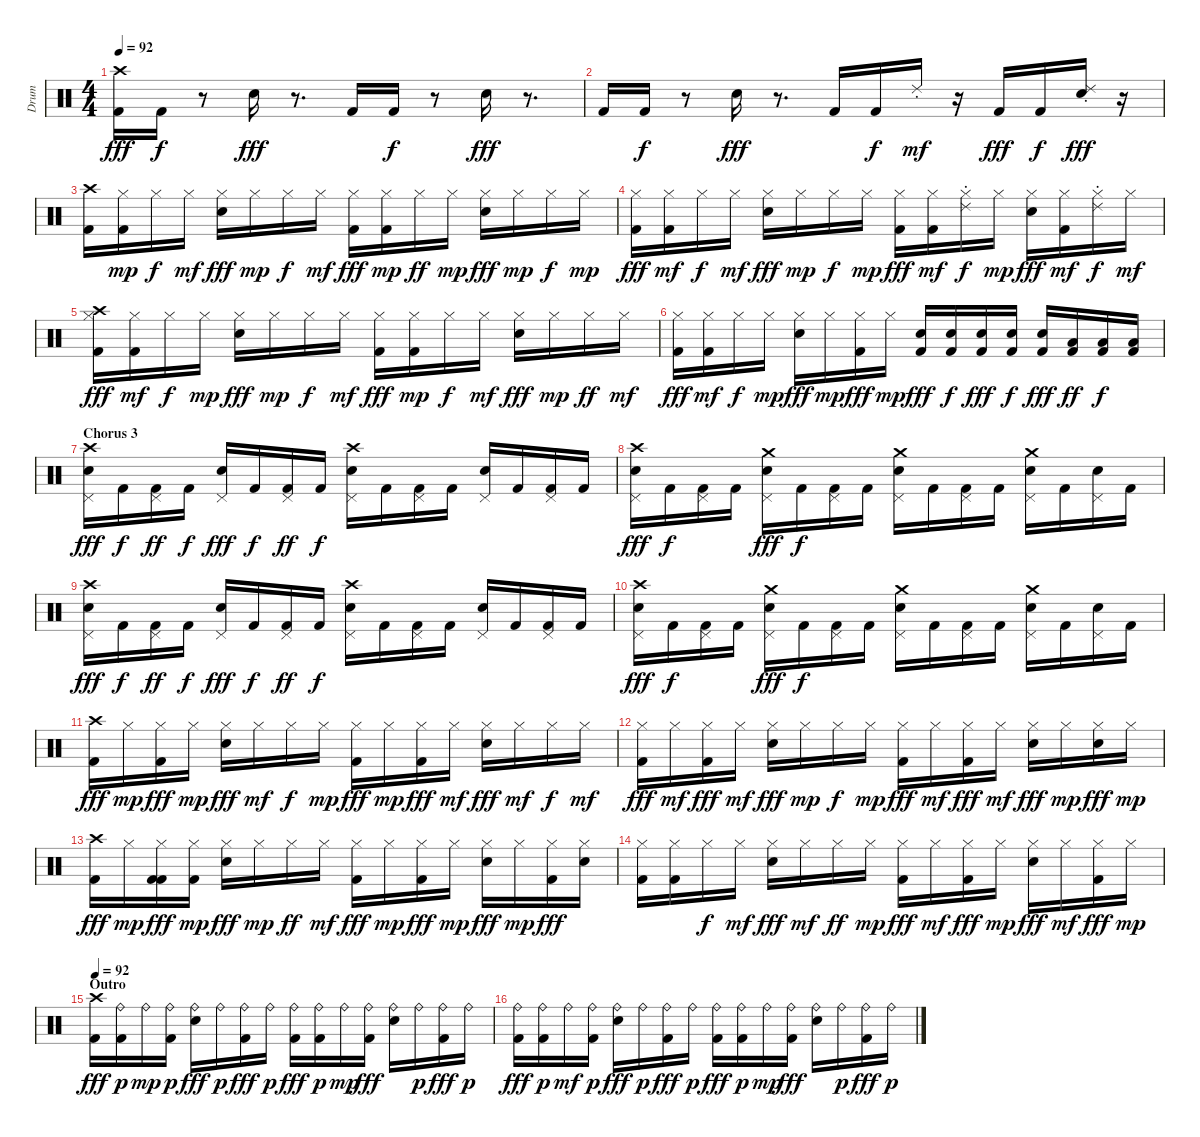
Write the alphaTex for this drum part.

\track ("Drum" "Drum") {instrument percussion}
\staff {score}
\articulation defaults
\ts (4 4)
\tempo 92
\clef neutral
\ks c
("Crash high (hit)" "Kick (hit) 2").16{dy fff} "Kick (hit) 2".16{dy f} r.8 "Electric Snare (hit)".16{dy fff} r.8{d} "Kick (hit) 2".16 "Kick (hit) 2".16{dy f} r.8 "Electric Snare (hit)".16{dy fff} r.8{d} |
"Kick (hit) 2".16 "Kick (hit) 2".16{dy f} r.8 "Electric Snare (hit)".16{dy fff} r.8{d} "Kick (hit) 2".16 "Kick (hit) 2".16{dy f} "Ride (choke) 2".16{dy mf} r.16 "Kick (hit) 2".16{dy fff} "Kick (hit) 2".16{dy f} ("Ride (choke) 2" "Electric Snare (hit)").16{dy fff} r.16 |
("Crash high (hit)" "Kick (hit) 2").16 ("Hi-Hat (closed)" "Kick (hit) 2").16{dy mp} "Hi-Hat (closed)".16{dy f} "Hi-Hat (closed)".16{dy mf} ("Hi-Hat (closed)" "Electric Snare (hit)").16{dy fff} "Hi-Hat (closed)".16{dy mp} "Hi-Hat (closed)".16{dy f} "Hi-Hat (closed)".16{dy mf} ("Hi-Hat (closed)" "Kick (hit) 2").16{dy fff} ("Hi-Hat (closed)" "Kick (hit) 2").16{dy mp} "Hi-Hat (closed)".16{dy ff} "Hi-Hat (closed)".16{dy mp} ("Hi-Hat (closed)" "Electric Snare (hit)").16{dy fff} "Hi-Hat (closed)".16{dy mp} "Hi-Hat (closed)".16{dy f} "Hi-Hat (closed)".16{dy mp} |
("Hi-Hat (closed)" "Kick (hit) 2").16{dy fff} ("Hi-Hat (closed)" "Kick (hit) 2").16{dy mf} "Hi-Hat (closed)".16{dy f} "Hi-Hat (closed)".16{dy mf} ("Hi-Hat (closed)" "Electric Snare (hit)").16{dy fff} "Hi-Hat (closed)".16{dy mp} "Hi-Hat (closed)".16{dy f} "Hi-Hat (closed)".16{dy mp} ("Hi-Hat (closed)" "Kick (hit) 2").16{dy fff} ("Hi-Hat (closed)" "Kick (hit) 2").16{dy mf} ("Ride (choke) 2" "Hi-Hat (closed)").16{dy f} "Hi-Hat (closed)".16{dy mp} ("Hi-Hat (closed)" "Electric Snare (hit)").16{dy fff} ("Hi-Hat (closed)" "Kick (hit) 2").16{dy mf} ("Ride (choke) 2" "Hi-Hat (closed)").16{dy f} "Hi-Hat (closed)".16{dy mf} |
("Hi-Hat (closed)" "Crash high (hit)" "Kick (hit) 2").16{dy fff} ("Hi-Hat (closed)" "Kick (hit) 2").16{dy mf} "Hi-Hat (closed)".16{dy f} "Hi-Hat (closed)".16{dy mp} ("Hi-Hat (closed)" "Electric Snare (hit)").16{dy fff} "Hi-Hat (closed)".16{dy mp} "Hi-Hat (closed)".16{dy f} "Hi-Hat (closed)".16{dy mf} ("Hi-Hat (closed)" "Kick (hit) 2").16{dy fff} ("Hi-Hat (closed)" "Kick (hit) 2").16{dy mp} "Hi-Hat (closed)".16{dy f} "Hi-Hat (closed)".16{dy mf} ("Hi-Hat (closed)" "Electric Snare (hit)").16{dy fff} "Hi-Hat (closed)".16{dy mp} "Hi-Hat (closed)".16{dy ff} "Hi-Hat (closed)".16{dy mf} |
("Hi-Hat (closed)" "Kick (hit) 2").16{dy fff} ("Hi-Hat (closed)" "Kick (hit) 2").16{dy mf} "Hi-Hat (closed)".16{dy f} "Hi-Hat (closed)".16{dy mp} ("Hi-Hat (closed)" "Electric Snare (hit)").16{dy fff} "Hi-Hat (closed)".16{dy mp} ("Hi-Hat (closed)" "Kick (hit) 2").16{dy fff} "Hi-Hat (closed)".16{dy mp} ("Electric Snare (hit)" "Kick (hit) 2").16{dy fff} ("Electric Snare (hit)" "Kick (hit) 2").16{dy f} ("Electric Snare (hit)" "Kick (hit) 2").16{dy fff} ("Electric Snare (hit)" "Kick (hit) 2").16{dy f} ("Electric Snare (hit)" "Kick (hit) 2").16{dy fff} ("Low Tom (hit)" "Kick (hit) 2").16{dy ff} ("Low Tom (hit)" "Kick (hit) 2").16{dy f} ("Low Floor Tom (hit)" "Kick (hit) 2").16 |
\section ("" "Chorus 3")
("Pedal Hi-Hat (hit)" "Crash high (hit)" "Electric Snare (hit)").16{dy fff} "Kick (hit) 2".16{dy f} ("Pedal Hi-Hat (hit)" "Kick (hit) 2").16{dy ff} "Kick (hit) 2".16{dy f} ("Pedal Hi-Hat (hit)" "Electric Snare (hit)").16{dy fff} "Kick (hit) 2".16{dy f} ("Pedal Hi-Hat (hit)" "Kick (hit) 2").16{dy ff} "Kick (hit) 2".16{dy f} ("Pedal Hi-Hat (hit)" "Crash high (hit)" "Electric Snare (hit)").16 "Kick (hit) 2".16 ("Pedal Hi-Hat (hit)" "Kick (hit) 2").16 "Kick (hit) 2".16 ("Pedal Hi-Hat (hit)" "Electric Snare (hit)").16 "Kick (hit) 2".16 ("Pedal Hi-Hat (hit)" "Kick (hit) 2").16 "Kick (hit) 2".16 |
("Pedal Hi-Hat (hit)" "Crash high (hit)" "Electric Snare (hit)").16{dy fff} "Kick (hit) 2".16{dy f} ("Pedal Hi-Hat (hit)" "Kick (hit) 2").16 "Kick (hit) 2".16 ("Pedal Hi-Hat (hit)" "Crash medium (hit)" "Electric Snare (hit)").16{dy fff} "Kick (hit) 2".16{dy f} ("Pedal Hi-Hat (hit)" "Kick (hit) 2").16 "Kick (hit) 2".16 ("Pedal Hi-Hat (hit)" "Crash medium (hit)" "Electric Snare (hit)").16 "Kick (hit) 2".16 ("Pedal Hi-Hat (hit)" "Kick (hit) 2").16 "Kick (hit) 2".16 ("Pedal Hi-Hat (hit)" "Crash medium (hit)" "Electric Snare (hit)").16 "Kick (hit) 2".16 ("Pedal Hi-Hat (hit)" "Electric Snare (hit)").16 "Kick (hit) 2".16 |
("Pedal Hi-Hat (hit)" "Crash high (hit)" "Electric Snare (hit)").16{dy fff} "Kick (hit) 2".16{dy f} ("Pedal Hi-Hat (hit)" "Kick (hit) 2").16{dy ff} "Kick (hit) 2".16{dy f} ("Pedal Hi-Hat (hit)" "Electric Snare (hit)").16{dy fff} "Kick (hit) 2".16{dy f} ("Pedal Hi-Hat (hit)" "Kick (hit) 2").16{dy ff} "Kick (hit) 2".16{dy f} ("Pedal Hi-Hat (hit)" "Crash high (hit)" "Electric Snare (hit)").16 "Kick (hit) 2".16 ("Pedal Hi-Hat (hit)" "Kick (hit) 2").16 "Kick (hit) 2".16 ("Pedal Hi-Hat (hit)" "Electric Snare (hit)").16 "Kick (hit) 2".16 ("Pedal Hi-Hat (hit)" "Kick (hit) 2").16 "Kick (hit) 2".16 |
("Pedal Hi-Hat (hit)" "Crash high (hit)" "Electric Snare (hit)").16{dy fff} "Kick (hit) 2".16{dy f} ("Pedal Hi-Hat (hit)" "Kick (hit) 2").16 "Kick (hit) 2".16 ("Pedal Hi-Hat (hit)" "Crash medium (hit)" "Electric Snare (hit)").16{dy fff} "Kick (hit) 2".16{dy f} ("Pedal Hi-Hat (hit)" "Kick (hit) 2").16 "Kick (hit) 2".16 ("Pedal Hi-Hat (hit)" "Crash medium (hit)" "Electric Snare (hit)").16 "Kick (hit) 2".16 ("Pedal Hi-Hat (hit)" "Kick (hit) 2").16 "Kick (hit) 2".16 ("Pedal Hi-Hat (hit)" "Crash medium (hit)" "Electric Snare (hit)").16 "Kick (hit) 2".16 ("Pedal Hi-Hat (hit)" "Electric Snare (hit)").16 "Kick (hit) 2".16 |
("Crash high (hit)" "Kick (hit) 2").16{dy fff} "Hi-Hat (closed)".16{dy mp} ("Hi-Hat (closed)" "Kick (hit) 2").16{dy fff} "Hi-Hat (closed)".16{dy mp} ("Hi-Hat (closed)" "Electric Snare (hit)").16{dy fff} "Hi-Hat (closed)".16{dy mf} "Hi-Hat (closed)".16{dy f} "Hi-Hat (closed)".16{dy mp} ("Hi-Hat (closed)" "Kick (hit) 2").16{dy fff} "Hi-Hat (closed)".16{dy mp} ("Hi-Hat (closed)" "Kick (hit) 2").16{dy fff} "Hi-Hat (closed)".16{dy mf} ("Hi-Hat (closed)" "Electric Snare (hit)").16{dy fff} "Hi-Hat (closed)".16{dy mf} "Hi-Hat (closed)".16{dy f} "Hi-Hat (closed)".16{dy mf} |
("Hi-Hat (closed)" "Kick (hit) 2").16{dy fff} "Hi-Hat (closed)".16{dy mf} ("Hi-Hat (closed)" "Kick (hit) 2").16{dy fff} "Hi-Hat (closed)".16{dy mf} ("Hi-Hat (closed)" "Electric Snare (hit)").16{dy fff} "Hi-Hat (closed)".16{dy mp} "Hi-Hat (closed)".16{dy f} "Hi-Hat (closed)".16{dy mp} ("Hi-Hat (closed)" "Kick (hit) 2").16{dy fff} "Hi-Hat (closed)".16{dy mf} ("Hi-Hat (closed)" "Kick (hit) 2").16{dy fff} "Hi-Hat (closed)".16{dy mf} ("Hi-Hat (closed)" "Electric Snare (hit)").16{dy fff} "Hi-Hat (closed)".16{dy mp} ("Hi-Hat (closed)" "Electric Snare (hit)").16{dy fff} "Hi-Hat (closed)".16{dy mp} |
("Crash high (hit)" "Kick (hit) 2").16{dy fff} "Hi-Hat (closed)".16{dy mp} ("Hi-Hat (closed)" "Kick (hit) 2" "Kick (hit) 2").16{dy fff} ("Hi-Hat (closed)" "Kick (hit) 2").16{dy mp} ("Hi-Hat (closed)" "Electric Snare (hit)").16{dy fff} "Hi-Hat (closed)".16{dy mp} "Hi-Hat (closed)".16{dy ff} "Hi-Hat (closed)".16{dy mf} ("Hi-Hat (closed)" "Kick (hit) 2").16{dy fff} "Hi-Hat (closed)".16{dy mp} ("Hi-Hat (closed)" "Kick (hit) 2").16{dy fff} "Hi-Hat (closed)".16{dy mp} ("Hi-Hat (closed)" "Electric Snare (hit)").16{dy fff} "Hi-Hat (closed)".16{dy mp} ("Hi-Hat (closed)" "Kick (hit) 2").16{dy fff} ("Hi-Hat (closed)" "Electric Snare (hit)").16 |
("Hi-Hat (closed)" "Kick (hit) 2").16 ("Hi-Hat (closed)" "Kick (hit) 2").16 "Hi-Hat (closed)".16{dy f} "Hi-Hat (closed)".16{dy mf} ("Hi-Hat (closed)" "Electric Snare (hit)").16{dy fff} "Hi-Hat (closed)".16{dy mf} "Hi-Hat (closed)".16{dy ff} "Hi-Hat (closed)".16{dy mp} ("Hi-Hat (closed)" "Kick (hit) 2").16{dy fff} "Hi-Hat (closed)".16{dy mf} ("Hi-Hat (closed)" "Kick (hit) 2").16{dy fff} "Hi-Hat (closed)".16{dy mp} ("Hi-Hat (closed)" "Electric Snare (hit)").16{dy fff} "Hi-Hat (closed)".16{dy mf} ("Hi-Hat (closed)" "Kick (hit) 2").16{dy fff} "Hi-Hat (closed)".16{dy mp} |
\section ("" "Outro")
\tempo 92
("Crash high (hit)" "Kick (hit) 2").16{dy fff} ("Ride (bell)" "Kick (hit) 2").16{dy p} "Ride (bell)".16{dy mp} ("Ride (bell)" "Kick (hit) 2").16{dy p} ("Ride (bell)" "Electric Snare (hit)").16{dy fff} "Ride (bell)".16{dy p} ("Ride (bell)" "Kick (hit) 2").16{dy fff} "Ride (bell)".16{dy p} ("Ride (bell)" "Kick (hit) 2").16{dy fff} ("Ride (bell)" "Kick (hit) 2").16{dy p} "Ride (bell)".16{dy mp} ("Ride (bell)" "Kick (hit) 2").16{dy fff} ("Ride (bell)" "Electric Snare (hit)").16 "Ride (bell)".16{dy p} ("Ride (bell)" "Kick (hit) 2").16{dy fff} "Ride (bell)".16{dy p} |
("Ride (bell)" "Kick (hit) 2").16{dy fff} ("Ride (bell)" "Kick (hit) 2").16{dy p} "Ride (bell)".16{dy mf} ("Ride (bell)" "Kick (hit) 2").16{dy p} ("Ride (bell)" "Electric Snare (hit)").16{dy fff} "Ride (bell)".16{dy p} ("Ride (bell)" "Kick (hit) 2").16{dy fff} "Ride (bell)".16{dy p} ("Ride (bell)" "Kick (hit) 2").16{dy fff} ("Ride (bell)" "Kick (hit) 2").16{dy p} "Ride (bell)".16{dy mp} ("Ride (bell)" "Kick (hit) 2").16{dy fff} ("Ride (bell)" "Electric Snare (hit)").16 "Ride (bell)".16{dy p} ("Ride (bell)" "Kick (hit) 2").16{dy fff} "Ride (bell)".16{dy p}
